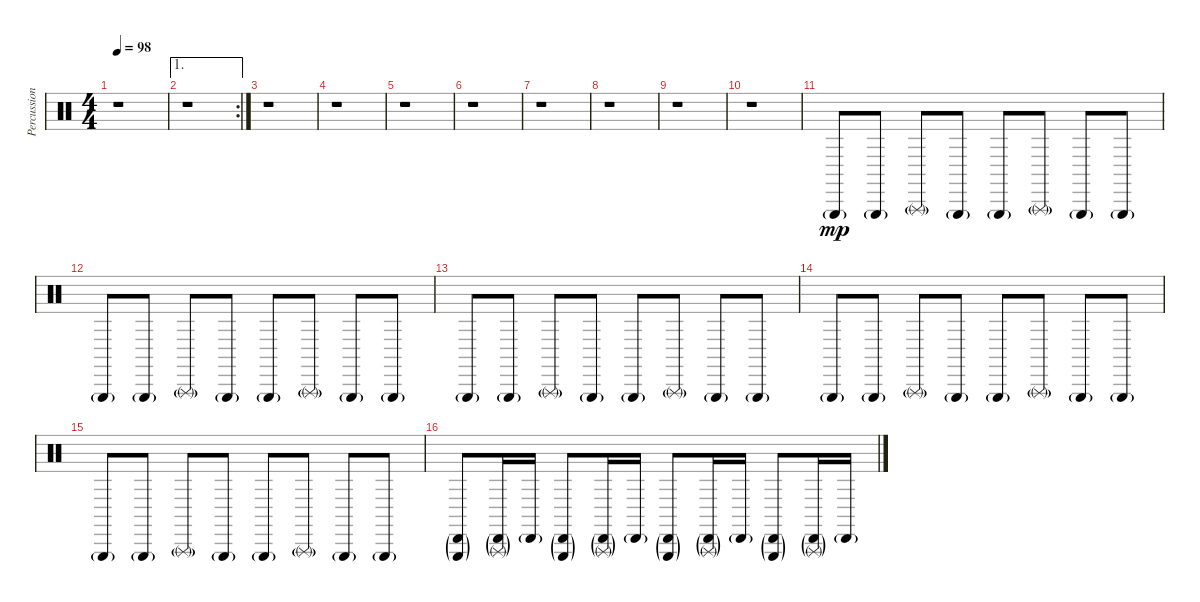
\track ("Percussion" "Percussion") {instrument percussion}
\staff {score}
\articulation defaults
\ts (4 4)
\tempo 98
\clef neutral
\ks c
r.1{dy mp} |
\ae 1
\rc 2
r.1 |
r.1 |
r.1 |
r.1 |
r.1 |
r.1 |
r.1 |
r.1 |
r.1 |
"Triangle (hit)"{g}.8 "Triangle (hit)"{g}.8 "Triangle (rnute)"{g}.8 "Triangle (hit)"{g}.8 "Triangle (hit)"{g}.8 "Triangle (rnute)"{g}.8 "Triangle (hit)"{g}.8 "Triangle (hit)"{g}.8 |
"Triangle (hit)"{g}.8 "Triangle (hit)"{g}.8 "Triangle (rnute)"{g}.8 "Triangle (hit)"{g}.8 "Triangle (hit)"{g}.8 "Triangle (rnute)"{g}.8 "Triangle (hit)"{g}.8 "Triangle (hit)"{g}.8 |
"Triangle (hit)"{g}.8 "Triangle (hit)"{g}.8 "Triangle (rnute)"{g}.8 "Triangle (hit)"{g}.8 "Triangle (hit)"{g}.8 "Triangle (rnute)"{g}.8 "Triangle (hit)"{g}.8 "Triangle (hit)"{g}.8 |
"Triangle (hit)"{g}.8 "Triangle (hit)"{g}.8 "Triangle (rnute)"{g}.8 "Triangle (hit)"{g}.8 "Triangle (hit)"{g}.8 "Triangle (rnute)"{g}.8 "Triangle (hit)"{g}.8 "Triangle (hit)"{g}.8 |
"Triangle (hit)"{g}.8 "Triangle (hit)"{g}.8 "Triangle (rnute)"{g}.8 "Triangle (hit)"{g}.8 "Triangle (hit)"{g}.8 "Triangle (rnute)"{g}.8 "Triangle (hit)"{g}.8 "Triangle (hit)"{g}.8 |
("Cabasa (hit)"{g} "Triangle (hit)"{g}).8 ("Cabasa (hit)"{g} "Triangle (rnute)"{g}).16 "Cabasa (hit)"{g}.16 ("Cabasa (hit)"{g} "Triangle (hit)"{g}).8 ("Cabasa (hit)"{g} "Triangle (rnute)"{g}).16 "Cabasa (hit)"{g}.16 ("Cabasa (hit)"{g} "Triangle (hit)"{g}).8 ("Cabasa (hit)"{g} "Triangle (rnute)"{g}).16 "Cabasa (hit)"{g}.16 ("Cabasa (hit)"{g} "Triangle (hit)"{g}).8 ("Cabasa (hit)"{g} "Triangle (rnute)"{g}).16 "Cabasa (hit)"{g}.16
